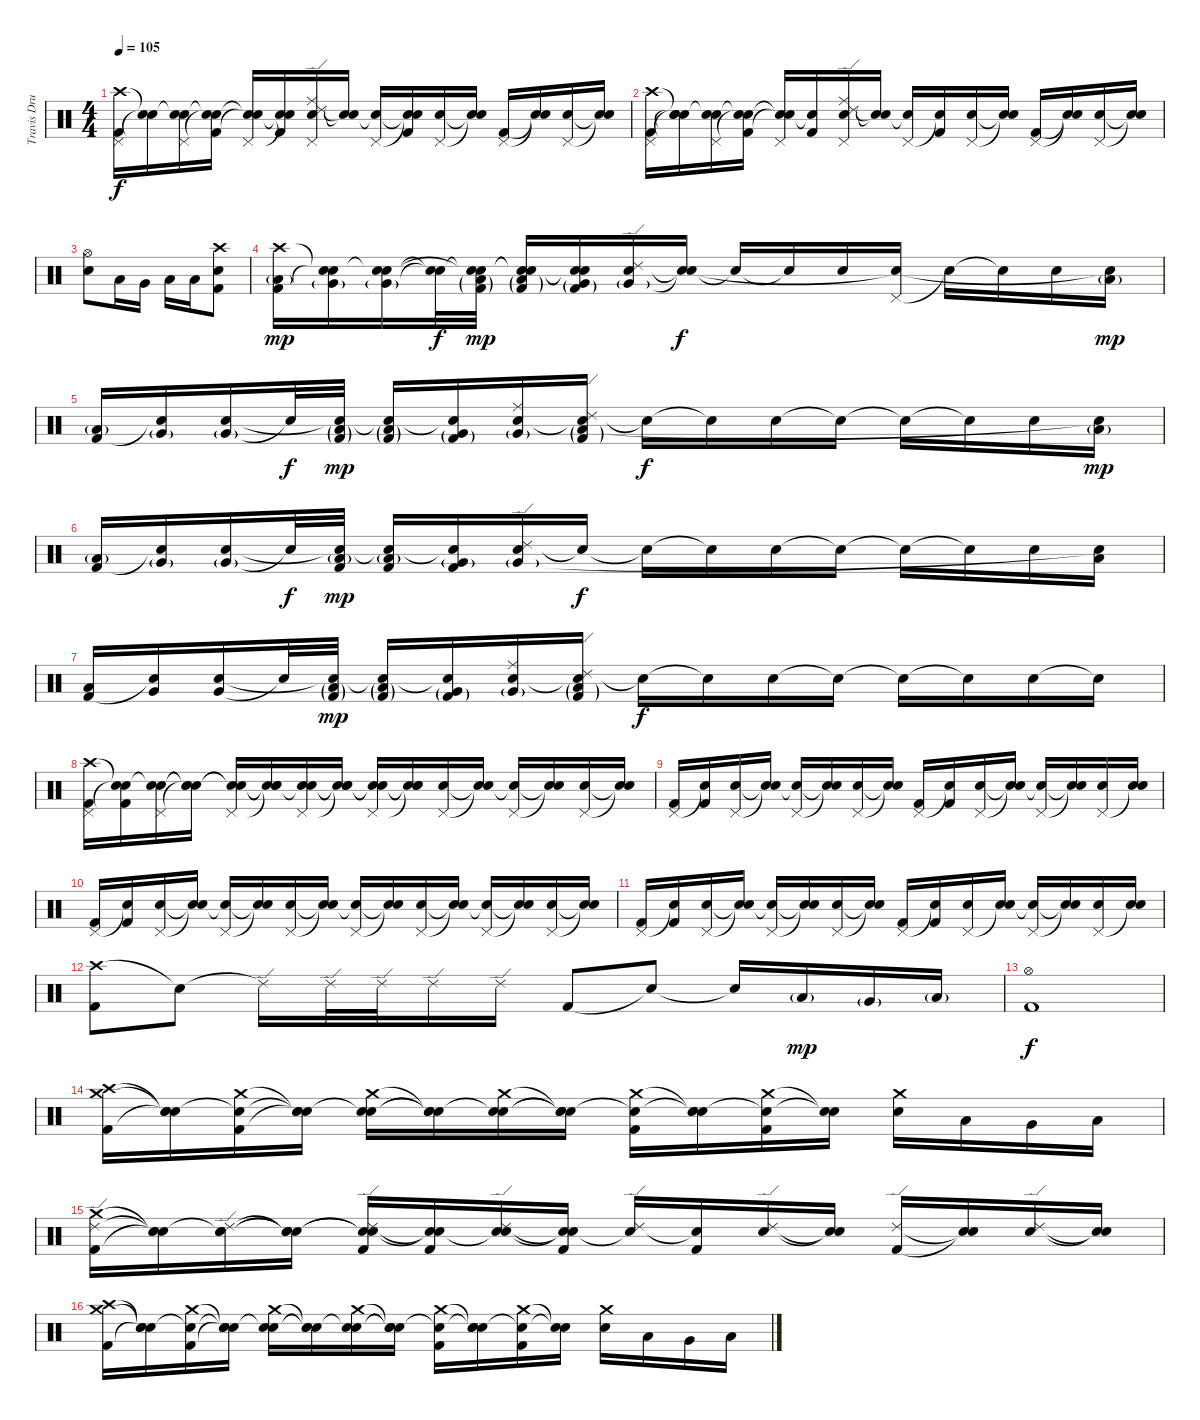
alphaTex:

\track ("Travis Drums" "Travis Dru") {instrument percussion}
\staff {score}
\articulation defaults
\ts (4 4)
\tempo 105
\clef neutral
\ks c
("Crash high (hit)" "Pedal Hi-Hat (hit)" "Kick (hit) 2").16{dy f} ("Snare (hit)"{t} "Snare (hit)"{t}).16 ("Snare (hit)"{t} "Pedal Hi-Hat (hit)" "Electric Snare (hit)").16 ("Snare (hit)"{t} "Snare (hit)"{t} "Kick (hit) 2").16 ("Snare (hit)"{t} "Pedal Hi-Hat (hit)" "Snare (hit)"{t}).16 ("Snare (hit)"{t} "Snare (hit)"{t} "Kick (hit) 2").16 ("Ride (edge) 2" "Ride (middle)" "Pedal Hi-Hat (hit)" "Electric Snare (hit)").16 ("Snare (hit)"{t} "Snare (hit)"{t}).16 ("Pedal Hi-Hat (hit)" "Snare (hit)"{t}).16 ("Snare (hit)"{t} "Snare (hit)"{t} "Kick (hit) 2").16 ("Pedal Hi-Hat (hit)" "Electric Snare (hit)").16 ("Snare (hit)"{t} "Snare (hit)"{t}).16 ("Pedal Hi-Hat (hit)" "Kick (hit) 2").16 ("Snare (hit)"{t} "Snare (hit)"{t}).16 ("Pedal Hi-Hat (hit)" "Electric Snare (hit)").16 ("Snare (hit)"{t} "Snare (hit)"{t}).16 |
("Crash high (hit)" "Pedal Hi-Hat (hit)" "Kick (hit) 2").16 ("Snare (hit)"{t} "Snare (hit)"{t} "Snare (hit)"{t}).16 ("Snare (hit)"{t} "Pedal Hi-Hat (hit)" "Electric Snare (hit)").16 ("Snare (hit)"{t} "Snare (hit)"{t} "Kick (hit) 2").16 ("Snare (hit)"{t} "Pedal Hi-Hat (hit)" "Snare (hit)"{t}).16 ("Snare (hit)"{t} "Kick (hit) 2").16 ("Ride (edge) 2" "Ride (middle)" "Pedal Hi-Hat (hit)" "Electric Snare (hit)").16 ("Snare (hit)"{t} "Snare (hit)"{t}).16 ("Pedal Hi-Hat (hit)" "Snare (hit)"{t}).16 ("Snare (hit)"{t} "Kick (hit) 2").16 ("Pedal Hi-Hat (hit)" "Electric Snare (hit)").16 ("Snare (hit)"{t} "Snare (hit)"{t}).16 ("Pedal Hi-Hat (hit)" "Kick (hit) 2").16 ("Snare (hit)"{t} "Snare (hit)"{t}).16 ("Pedal Hi-Hat (hit)" "Electric Snare (hit)").16 ("Snare (hit)"{t} "Snare (hit)"{t}).16 |
("Hi-Hat (open)" "Electric Snare (hit)").8 "Low Tom (hit)".16 "Very Low Tom (hit)".16 "Low Floor Tom (hit)".16 "Low Tom (hit)".16 ("Crash high (hit)" "Electric Snare (hit)" "Kick (hit) 2").8 |
("Crash high (hit)" "Low Tom (hit)"{g} "Kick (hit) 2").16{dy mp} ("Snare (hit)"{t} "Very Low Tom (hit)"{g} "Snare (hit)"{t}).16 ("Snare (hit)"{t} "Very Low Tom (hit)"{g} "Electric Snare (hit)").16 ("Snare (hit)"{t} "Snare (hit)"{t}).32{dy f} ("Snare (hit)"{t} "Low Tom (hit)"{g} "Snare (hit)"{t} "Kick (hit) 2"{g}).32{dy mp} ("Snare (hit)"{t} "Low Tom (hit)"{g} "Snare (hit)"{t} "Kick (hit) 2"{g}).16 ("Snare (hit)"{t} "Very Low Tom (hit)"{g} "Snare (hit)"{t} "Kick (hit) 2"{g}).16 ("Ride (edge) 2" "Very Low Tom (hit)"{g} "Electric Snare (hit)").16 ("Snare (hit)"{t} "Snare (hit)"{t}).16{dy f} "Snare (hit)"{t}.16 "Snare (hit)"{t}.16 "Electric Snare (hit)".16 ("Pedal Hi-Hat (hit)" "Snare (hit)"{t}).16 "Snare (hit)"{t}.16 "Snare (hit)"{t}.16 "Electric Snare (hit)".16 ("Low Tom (hit)"{g} "Snare (hit)"{t}).16{dy mp} |
("Low Tom (hit)"{g} "Kick (hit) 2").16 ("Very Low Tom (hit)"{g} "Snare (hit)"{t}).16 ("Very Low Tom (hit)"{g} "Electric Snare (hit)").16 "Snare (hit)"{t}.32{dy f} ("Low Tom (hit)"{g} "Snare (hit)"{t} "Kick (hit) 2"{g}).32{dy mp} ("Low Tom (hit)"{g} "Snare (hit)"{t} "Kick (hit) 2"{g}).16 ("Very Low Tom (hit)"{g} "Snare (hit)"{t} "Kick (hit) 2"{g}).16 ("Ride (middle)" "Very Low Tom (hit)"{g} "Electric Snare (hit)").16 ("Ride (edge) 2" "Low Floor Tom (hit)"{g} "Snare (hit)"{t} "Kick (hit) 2"{g}).16 "Snare (hit)"{t}.16{dy f} "Snare (hit)"{t}.16 "Electric Snare (hit)".16 "Snare (hit)"{t}.16 "Snare (hit)"{t}.16 "Snare (hit)"{t}.16 "Electric Snare (hit)".16 ("Low Tom (hit)"{g} "Snare (hit)"{t}).16{dy mp} |
("Low Tom (hit)"{g} "Kick (hit) 2").16 ("Very Low Tom (hit)"{g} "Snare (hit)"{t}).16 ("Very Low Tom (hit)"{g} "Electric Snare (hit)").16 "Snare (hit)"{t}.32{dy f} ("Low Tom (hit)"{g} "Snare (hit)"{t} "Kick (hit) 2").32{dy mp} ("Low Tom (hit)"{g} "Snare (hit)"{t} "Kick (hit) 2").16 ("Very Low Tom (hit)"{g} "Snare (hit)"{t} "Kick (hit) 2").16 ("Ride (edge) 2" "Very Low Tom (hit)"{g} "Electric Snare (hit)").16 "Snare (hit)"{t}.16{dy f} "Snare (hit)"{t}.16 "Snare (hit)"{t}.16 "Electric Snare (hit)".16 "Snare (hit)"{t}.16 "Snare (hit)"{t}.16 "Snare (hit)"{t}.16 "Electric Snare (hit)".16 ("Low Tom (hit)" "Snare (hit)"{t}).16 |
("Low Tom (hit)" "Kick (hit) 2").16 ("Very Low Tom (hit)" "Snare (hit)"{t}).16 ("Very Low Tom (hit)" "Electric Snare (hit)").16 "Snare (hit)"{t}.32 ("Low Tom (hit)"{g} "Snare (hit)"{t} "Kick (hit) 2"{g}).32{dy mp} ("Low Tom (hit)"{g} "Snare (hit)"{t} "Kick (hit) 2"{g}).16 ("Very Low Tom (hit)"{g} "Snare (hit)"{t} "Kick (hit) 2"{g}).16 ("Ride (middle)" "Very Low Tom (hit)"{g} "Electric Snare (hit)").16 ("Ride (edge) 2" "Low Floor Tom (hit)"{g} "Snare (hit)"{t} "Kick (hit) 2"{g}).16 "Snare (hit)"{t}.16{dy f} "Snare (hit)"{t}.16 "Electric Snare (hit)".16 "Snare (hit)"{t}.16 "Snare (hit)"{t}.16 "Snare (hit)"{t}.16 "Electric Snare (hit)".16 "Snare (hit)"{t}.16 |
("Crash high (hit)" "Pedal Hi-Hat (hit)" "Kick (hit) 2").16 ("Snare (hit)"{t} "Snare (hit)"{t} "Kick (hit) 2").16 ("Snare (hit)"{t} "Pedal Hi-Hat (hit)" "Electric Snare (hit)").16 ("Snare (hit)"{t} "Snare (hit)"{t} "Snare (hit)"{t}).16 ("Snare (hit)"{t} "Pedal Hi-Hat (hit)" "Snare (hit)"{t}).16 ("Snare (hit)"{t} "Snare (hit)"{t} "Snare (hit)"{t}).16 ("Snare (hit)"{t} "Pedal Hi-Hat (hit)" "Electric Snare (hit)").16 ("Snare (hit)"{t} "Snare (hit)"{t} "Snare (hit)"{t}).16 ("Snare (hit)"{t} "Pedal Hi-Hat (hit)" "Snare (hit)"{t}).16 ("Snare (hit)"{t} "Snare (hit)"{t} "Snare (hit)"{t}).16 ("Pedal Hi-Hat (hit)" "Electric Snare (hit)").16 ("Snare (hit)"{t} "Snare (hit)"{t}).16 ("Pedal Hi-Hat (hit)" "Snare (hit)"{t}).16 ("Snare (hit)"{t} "Snare (hit)"{t}).16 ("Pedal Hi-Hat (hit)" "Electric Snare (hit)").16 ("Snare (hit)"{t} "Snare (hit)"{t}).16 |
("Pedal Hi-Hat (hit)" "Kick (hit) 2").16 ("Snare (hit)"{t} "Kick (hit) 2").16 ("Pedal Hi-Hat (hit)" "Electric Snare (hit)").16 ("Snare (hit)"{t} "Snare (hit)"{t}).16 ("Pedal Hi-Hat (hit)" "Snare (hit)"{t}).16 ("Snare (hit)"{t} "Snare (hit)"{t}).16 ("Pedal Hi-Hat (hit)" "Electric Snare (hit)").16 ("Snare (hit)"{t} "Snare (hit)"{t}).16 ("Pedal Hi-Hat (hit)" "Kick (hit) 2").16 ("Snare (hit)"{t} "Kick (hit) 2").16 ("Pedal Hi-Hat (hit)" "Electric Snare (hit)").16 ("Snare (hit)"{t} "Snare (hit)"{t}).16 ("Pedal Hi-Hat (hit)" "Snare (hit)"{t}).16 ("Snare (hit)"{t} "Electric Snare (hit)"{t}).16 ("Pedal Hi-Hat (hit)" "Electric Snare (hit)").16 ("Snare (hit)"{t} "Electric Snare (hit)").16 |
("Pedal Hi-Hat (hit)" "Kick (hit) 2").16 ("Snare (hit)"{t} "Kick (hit) 2").16 ("Pedal Hi-Hat (hit)" "Electric Snare (hit)").16 ("Snare (hit)"{t} "Snare (hit)"{t}).16 ("Pedal Hi-Hat (hit)" "Snare (hit)"{t}).16 ("Snare (hit)"{t} "Snare (hit)"{t}).16 ("Pedal Hi-Hat (hit)" "Electric Snare (hit)").16 ("Snare (hit)"{t} "Snare (hit)"{t}).16 ("Pedal Hi-Hat (hit)" "Snare (hit)"{t}).16 ("Snare (hit)"{t} "Snare (hit)"{t}).16 ("Pedal Hi-Hat (hit)" "Electric Snare (hit)").16 ("Snare (hit)"{t} "Snare (hit)"{t}).16 ("Pedal Hi-Hat (hit)" "Snare (hit)"{t}).16 ("Snare (hit)"{t} "Electric Snare (hit)"{t}).16 ("Pedal Hi-Hat (hit)" "Electric Snare (hit)").16 ("Snare (hit)"{t} "Snare (hit)"{t}).16 |
("Pedal Hi-Hat (hit)" "Kick (hit) 2").16 ("Snare (hit)"{t} "Kick (hit) 2").16 ("Pedal Hi-Hat (hit)" "Electric Snare (hit)").16 ("Snare (hit)"{t} "Snare (hit)"{t}).16 ("Pedal Hi-Hat (hit)" "Snare (hit)"{t}).16 ("Snare (hit)"{t} "Snare (hit)"{t}).16 ("Pedal Hi-Hat (hit)" "Electric Snare (hit)").16 ("Snare (hit)"{t} "Snare (hit)"{t}).16 ("Pedal Hi-Hat (hit)" "Kick (hit) 2").16 ("Snare (hit)"{t} "Kick (hit) 2").16 ("Pedal Hi-Hat (hit)" "Electric Snare (hit)").16 ("Snare (hit)"{t} "Electric Snare (hit)").16 ("Pedal Hi-Hat (hit)" "Snare (hit)"{t}).16 ("Snare (hit)"{t} "Snare (hit)"{t}).16 ("Pedal Hi-Hat (hit)" "Electric Snare (hit)").16 ("Snare (hit)"{t} "Electric Snare (hit)").16 |
("Crash high (hit)" "Kick (hit) 2").8{volume 8} "Snare (hit)"{t}.8 "Ride (edge) 2"{t}.16 "Ride (edge) 2".32 "Ride (edge) 2".32 "Ride (edge) 2".16 "Ride (edge) 2".16 "Kick (hit) 2".8 "Snare (hit)"{t}.8 "Snare (hit)"{t}.16 "Low Tom (hit)"{g}.16{dy mp} "Very Low Tom (hit)"{g}.16 "Low Floor Tom (hit)"{g}.16 |
("Hi-Hat (open)" "Kick (hit) 2").1{dy f} |
("Crash high (hit)" "Crash medium (hit)" "Kick (hit) 2").16{volume 10} ("Snare (hit)"{t} "Snare (hit)"{t} "Snare (hit)"{t}).16 ("Snare (hit)"{t} "Crash medium (hit)" "Kick (hit) 2").16 ("Snare (hit)"{t} "Snare (hit)"{t} "Snare (hit)"{t}).16 ("Snare (hit)"{t} "Crash medium (hit)" "Electric Snare (hit)").16 ("Snare (hit)"{t} "Snare (hit)"{t} "Electric Snare (hit)"{t}).16 ("Snare (hit)"{t} "Crash medium (hit)" "Electric Snare (hit)").16 ("Snare (hit)"{t} "Snare (hit)"{t} "Snare (hit)"{t}).16 ("Snare (hit)"{t} "Crash medium (hit)" "Kick (hit) 2").16 ("Snare (hit)"{t} "Snare (hit)"{t} "Electric Snare (hit)").16 ("Snare (hit)"{t} "Crash medium (hit)" "Kick (hit) 2").16 ("Snare (hit)"{t} "Snare (hit)"{t}).16 ("Crash medium (hit)" "Electric Snare (hit)").16 "Low Tom (hit)".16 "Very Low Tom (hit)".16 "Low Floor Tom (hit)".16 |
("Crash medium (hit)" "Ride (edge) 2" "Kick (hit) 2").16 ("Snare (hit)"{t} "Snare (hit)"{t} "Snare (hit)"{t}).16 ("Snare (hit)"{t} "Ride (edge) 2" "Electric Snare (hit)").16 ("Snare (hit)"{t} "Snare (hit)"{t} "Snare (hit)"{t}).16 ("Snare (hit)"{t} "Ride (edge) 2" "Snare (hit)"{t} "Kick (hit) 2").16 ("Snare (hit)"{t} "Snare (hit)"{t} "Kick (hit) 2").16 ("Snare (hit)"{t} "Ride (edge) 2" "Electric Snare (hit)").16 ("Snare (hit)"{t} "Snare (hit)"{t} "Kick (hit) 2").16 ("Ride (edge) 2" "Snare (hit)"{t}).16 ("Snare (hit)"{t} "Kick (hit) 2").16 ("Ride (edge) 2" "Electric Snare (hit)").16 ("Snare (hit)"{t} "Snare (hit)"{t}).16 ("Ride (edge) 2" "Kick (hit) 2").16 ("Snare (hit)"{t} "Snare (hit)"{t}).16 ("Ride (edge) 2" "Electric Snare (hit)").16 ("Snare (hit)"{t} "Snare (hit)"{t}).16 |
("Crash high (hit)" "Crash medium (hit)" "Kick (hit) 2").16{volume 10} ("Snare (hit)"{t} "Snare (hit)"{t} "Snare (hit)"{t}).16 ("Snare (hit)"{t} "Crash medium (hit)" "Kick (hit) 2").16 ("Snare (hit)"{t} "Snare (hit)"{t} "Snare (hit)"{t}).16 ("Snare (hit)"{t} "Crash medium (hit)" "Electric Snare (hit)").16 ("Snare (hit)"{t} "Snare (hit)"{t} "Electric Snare (hit)"{t}).16 ("Snare (hit)"{t} "Crash medium (hit)" "Electric Snare (hit)").16 ("Snare (hit)"{t} "Snare (hit)"{t} "Snare (hit)"{t}).16 ("Snare (hit)"{t} "Crash medium (hit)" "Kick (hit) 2").16 ("Snare (hit)"{t} "Snare (hit)"{t} "Electric Snare (hit)").16 ("Snare (hit)"{t} "Crash medium (hit)" "Kick (hit) 2").16 ("Snare (hit)"{t} "Snare (hit)"{t}).16 ("Crash medium (hit)" "Electric Snare (hit)").16 "Low Tom (hit)".16 "Very Low Tom (hit)".16 "Low Floor Tom (hit)".16
